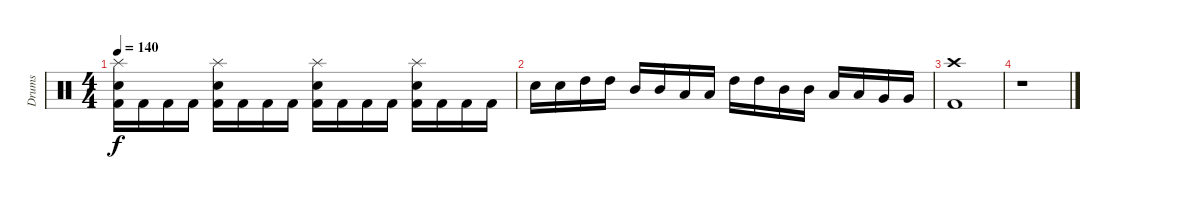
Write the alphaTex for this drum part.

\track ("Drums" "Drums") {instrument percussion}
\staff {score}
\articulation defaults
\ts (4 4)
\tempo 140
\clef neutral
\ks c
("Splash (hit)" "Snare (hit) 2" "Kick (hit) 2").16{dy f} "Kick (hit) 2".16 "Kick (hit) 2".16 "Kick (hit) 2".16 ("Splash (hit)" "Snare (hit) 2" "Kick (hit) 2").16 "Kick (hit) 2".16 "Kick (hit) 2".16 "Kick (hit) 2".16 ("Splash (hit)" "Snare (hit) 2" "Kick (hit) 2").16 "Kick (hit) 2".16 "Kick (hit) 2".16 "Kick (hit) 2".16 ("Splash (hit)" "Snare (hit) 2" "Kick (hit) 2").16 "Kick (hit) 2".16 "Kick (hit) 2".16 "Kick (hit) 2".16 |
"Snare (hit) 2".16 "Snare (hit) 2".16 "High Tom (hit)".16 "High Tom (hit)".16 "Mid Tom (hit)".16 "Mid Tom (hit)".16 "Low Tom (hit)".16 "Low Tom (hit)".16 "High Tom (hit)".16 "High Tom (hit)".16 "Mid Tom (hit)".16 "Mid Tom (hit)".16 "Low Tom (hit)".16 "Low Tom (hit)".16 "Very Low Tom (hit)".16 "Very Low Tom (hit)".16 |
("Crash high (hit)" "Kick (hit) 2").1 |
r.1
